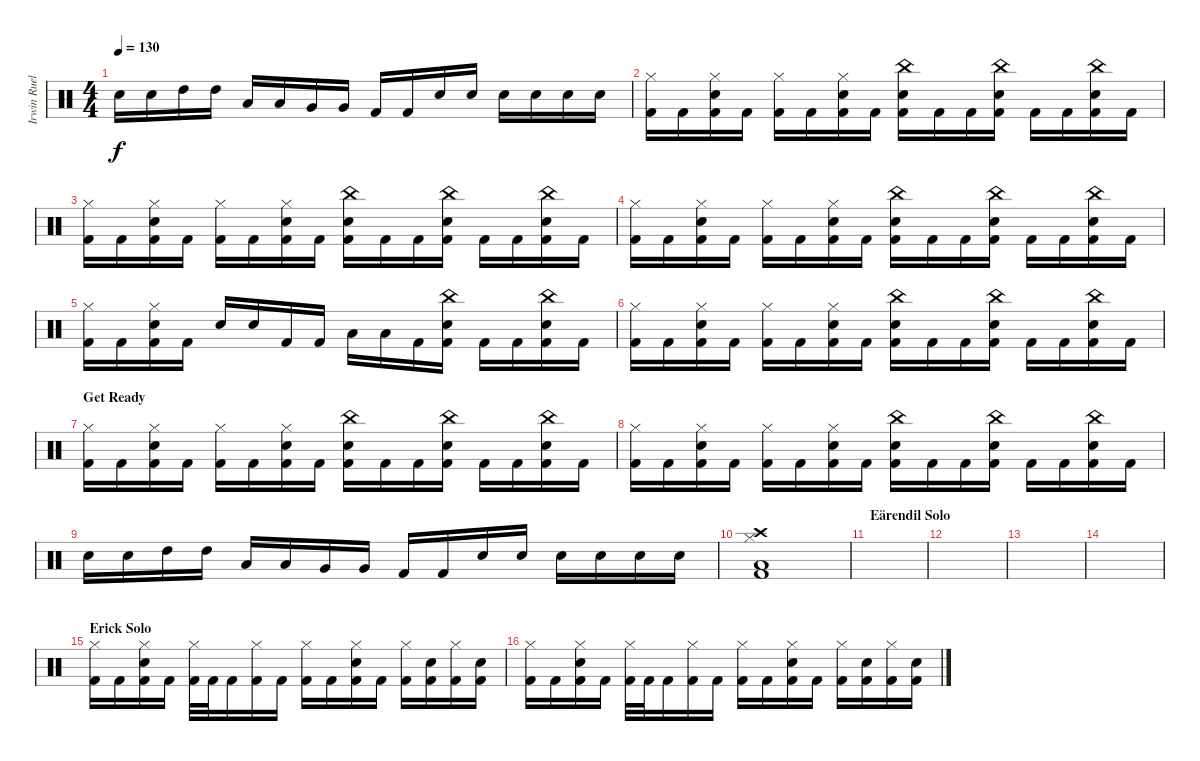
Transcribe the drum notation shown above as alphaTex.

\track ("Irwin Ruelas (Drums)" "Irwin Ruel") {instrument percussion}
\staff {score}
\articulation defaults
\ts (4 4)
\tempo 130
\clef neutral
\ks c "Snare (hit) 2".16{dy f} "Snare (hit) 2".16 "High Tom (hit)".16 "High Tom (hit)".16 "Low Tom (hit)".16 "Low Tom (hit)".16 "Very Low Tom (hit)".16 "Very Low Tom (hit)".16 "Kick (hit) 2".16 "Kick (hit) 2".16 "Snare (hit) 2".16 "Snare (hit) 2".16 "Snare (hit) 2".16 "Snare (hit) 2".16 "Snare (hit) 2".16 "Snare (hit) 2".16
|
("Hi-Hat (closed)" "Kick (hit) 2").16 "Kick (hit) 2".16 ("Hi-Hat (closed)" "Snare (hit) 2" "Kick (hit) 2").16 "Kick (hit) 2".16 ("Hi-Hat (closed)" "Kick (hit) 2").16 "Kick (hit) 2".16 ("Hi-Hat (closed)" "Snare (hit) 2" "Kick (hit) 2").16 "Kick (hit) 2".16 ("China (hit)" "Snare (hit) 2" "Kick (hit) 2").16 "Kick (hit) 2".16 "Kick (hit) 2".16 ("China (hit)" "Snare (hit) 2" "Kick (hit) 2").16 "Kick (hit) 2".16 "Kick (hit) 2".16 ("China (hit)" "Snare (hit) 2" "Kick (hit) 2").16 "Kick (hit) 2".16 |
("Hi-Hat (closed)" "Kick (hit) 2").16 "Kick (hit) 2".16 ("Hi-Hat (closed)" "Snare (hit) 2" "Kick (hit) 2").16 "Kick (hit) 2".16 ("Hi-Hat (closed)" "Kick (hit) 2").16 "Kick (hit) 2".16 ("Hi-Hat (closed)" "Snare (hit) 2" "Kick (hit) 2").16 "Kick (hit) 2".16 ("China (hit)" "Snare (hit) 2" "Kick (hit) 2").16 "Kick (hit) 2".16 "Kick (hit) 2".16 ("China (hit)" "Snare (hit) 2" "Kick (hit) 2").16 "Kick (hit) 2".16 "Kick (hit) 2".16 ("China (hit)" "Snare (hit) 2" "Kick (hit) 2").16 "Kick (hit) 2".16 |
("Hi-Hat (closed)" "Kick (hit) 2").16 "Kick (hit) 2".16 ("Hi-Hat (closed)" "Snare (hit) 2" "Kick (hit) 2").16 "Kick (hit) 2".16 ("Hi-Hat (closed)" "Kick (hit) 2").16 "Kick (hit) 2".16 ("Hi-Hat (closed)" "Snare (hit) 2" "Kick (hit) 2").16 "Kick (hit) 2".16 ("China (hit)" "Snare (hit) 2" "Kick (hit) 2").16 "Kick (hit) 2".16 "Kick (hit) 2".16 ("China (hit)" "Snare (hit) 2" "Kick (hit) 2").16 "Kick (hit) 2".16 "Kick (hit) 2".16 ("China (hit)" "Snare (hit) 2" "Kick (hit) 2").16 "Kick (hit) 2".16 |
("Hi-Hat (closed)" "Kick (hit) 2").16 "Kick (hit) 2".16 ("Hi-Hat (closed)" "Snare (hit) 2" "Kick (hit) 2").16 "Kick (hit) 2".16 "Snare (hit) 2".16 "Snare (hit) 2".16 "Kick (hit) 2".16 "Kick (hit) 2".16 "Low Tom (hit)".16 "Low Tom (hit)".16 "Kick (hit) 2".16 ("China (hit)" "Snare (hit) 2" "Kick (hit) 2").16 "Kick (hit) 2".16 "Kick (hit) 2".16 ("China (hit)" "Snare (hit) 2" "Kick (hit) 2").16 "Kick (hit) 2".16 |
("Hi-Hat (closed)" "Kick (hit) 2").16 "Kick (hit) 2".16 ("Hi-Hat (closed)" "Snare (hit) 2" "Kick (hit) 2").16 "Kick (hit) 2".16 ("Hi-Hat (closed)" "Kick (hit) 2").16 "Kick (hit) 2".16 ("Hi-Hat (closed)" "Snare (hit) 2" "Kick (hit) 2").16 "Kick (hit) 2".16 ("China (hit)" "Snare (hit) 2" "Kick (hit) 2").16 "Kick (hit) 2".16 "Kick (hit) 2".16 ("China (hit)" "Snare (hit) 2" "Kick (hit) 2").16 "Kick (hit) 2".16 "Kick (hit) 2".16 ("China (hit)" "Snare (hit) 2" "Kick (hit) 2").16 "Kick (hit) 2".16 |
\section ("" "Get Ready")
("Hi-Hat (closed)" "Kick (hit) 2").16 "Kick (hit) 2".16 ("Hi-Hat (closed)" "Snare (hit) 2" "Kick (hit) 2").16 "Kick (hit) 2".16 ("Hi-Hat (closed)" "Kick (hit) 2").16 "Kick (hit) 2".16 ("Hi-Hat (closed)" "Snare (hit) 2" "Kick (hit) 2").16 "Kick (hit) 2".16 ("China (hit)" "Snare (hit) 2" "Kick (hit) 2").16 "Kick (hit) 2".16 "Kick (hit) 2".16 ("China (hit)" "Snare (hit) 2" "Kick (hit) 2").16 "Kick (hit) 2".16 "Kick (hit) 2".16 ("China (hit)" "Snare (hit) 2" "Kick (hit) 2").16 "Kick (hit) 2".16 |
("Hi-Hat (closed)" "Kick (hit) 2").16 "Kick (hit) 2".16 ("Hi-Hat (closed)" "Snare (hit) 2" "Kick (hit) 2").16 "Kick (hit) 2".16 ("Hi-Hat (closed)" "Kick (hit) 2").16 "Kick (hit) 2".16 ("Hi-Hat (closed)" "Snare (hit) 2" "Kick (hit) 2").16 "Kick (hit) 2".16 ("China (hit)" "Snare (hit) 2" "Kick (hit) 2").16 "Kick (hit) 2".16 "Kick (hit) 2".16 ("China (hit)" "Snare (hit) 2" "Kick (hit) 2").16 "Kick (hit) 2".16 "Kick (hit) 2".16 ("China (hit)" "Snare (hit) 2" "Kick (hit) 2").16 "Kick (hit) 2".16 |
"Snare (hit) 2".16 "Snare (hit) 2".16 "High Tom (hit)".16 "High Tom (hit)".16 "Low Tom (hit)".16 "Low Tom (hit)".16 "Very Low Tom (hit)".16 "Very Low Tom (hit)".16 "Kick (hit) 2".16 "Kick (hit) 2".16 "Snare (hit) 2".16 "Snare (hit) 2".16 "Snare (hit) 2".16 "Snare (hit) 2".16 "Snare (hit) 2".16 "Snare (hit) 2".16 |
("Hi-Hat (closed)" "Low Floor Tom (hit)" "Kick (hit) 2" "Crash high (hit)").1 |
\section ("" "Eärendil Solo")
|
|
|
|
\section ("" "Erick Solo")
("Hi-Hat (closed)" "Kick (hit) 2").16 "Kick (hit) 2".16 ("Hi-Hat (closed)" "Snare (hit) 2" "Kick (hit) 2").16 "Kick (hit) 2".16 ("Hi-Hat (closed)" "Kick (hit) 2").32 "Kick (hit) 2".32 "Kick (hit) 2".16 ("Hi-Hat (closed)" "Kick (hit) 2").16 "Kick (hit) 2".16 ("Hi-Hat (closed)" "Kick (hit) 2").16 "Kick (hit) 2".16 ("Hi-Hat (closed)" "Snare (hit) 2" "Kick (hit) 2").16 "Kick (hit) 2".16 ("Hi-Hat (closed)" "Kick (hit) 2").16 ("Snare (hit) 2" "Kick (hit) 2").16 ("Hi-Hat (closed)" "Kick (hit) 2").16 ("Snare (hit) 2" "Kick (hit) 2").16 |
("Hi-Hat (closed)" "Kick (hit) 2").16 "Kick (hit) 2".16 ("Hi-Hat (closed)" "Snare (hit) 2" "Kick (hit) 2").16 "Kick (hit) 2".16 ("Hi-Hat (closed)" "Kick (hit) 2").32 "Kick (hit) 2".32 "Kick (hit) 2".16 ("Hi-Hat (closed)" "Kick (hit) 2").16 "Kick (hit) 2".16 ("Hi-Hat (closed)" "Kick (hit) 2").16 "Kick (hit) 2".16 ("Hi-Hat (closed)" "Snare (hit) 2" "Kick (hit) 2").16 "Kick (hit) 2".16 ("Hi-Hat (closed)" "Kick (hit) 2").16 ("Snare (hit) 2" "Kick (hit) 2").16 ("Hi-Hat (closed)" "Kick (hit) 2").16 ("Snare (hit) 2" "Kick (hit) 2").16
